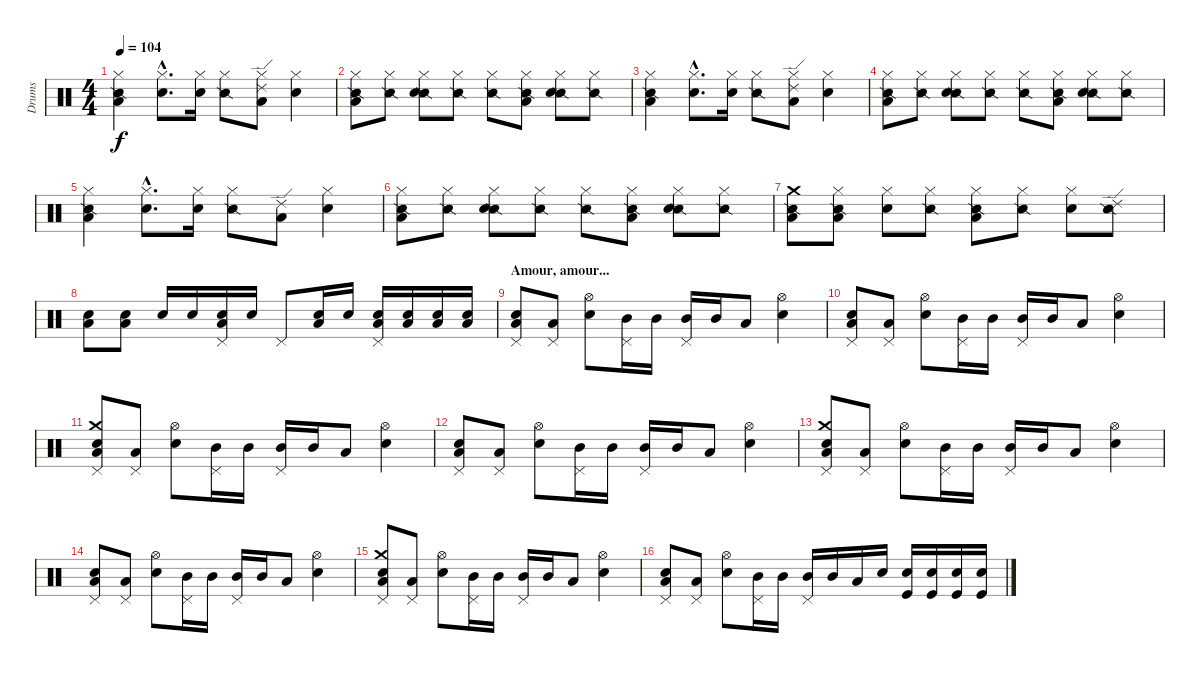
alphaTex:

\track ("Drums" "Drums") {instrument percussion}
\staff {score}
\articulation defaults
\ts (4 4)
\tempo 104
\clef neutral
\ks c
("Snare (side stick) 2" "Hi-Hat (closed)" "Low Floor Tom (hit)").4{dy f} ("Snare (hit) 2"{hac} "Hi-Hat (closed)"{hac}).8{d} ("Snare (hit) 2" "Hi-Hat (closed)").16 ("Snare (side stick) 2" "Hi-Hat (closed)").8 ("Ride (edge) 2" "Hi-Hat (closed)" "Low Floor Tom (hit)").8 ("Snare (hit) 2" "Hi-Hat (closed)").4 |
("Snare (side stick) 2" "Hi-Hat (closed)" "Low Floor Tom (hit)").8 ("Snare (side stick) 2" "Hi-Hat (closed)").8 ("Snare (side stick) 2" "Snare (hit) 2" "Hi-Hat (closed)").8 ("Snare (side stick) 2" "Hi-Hat (closed)").8 ("Snare (side stick) 2" "Hi-Hat (closed)").8 ("Snare (side stick) 2" "Hi-Hat (closed)" "Low Floor Tom (hit)").8 ("Snare (side stick) 2" "Snare (hit) 2" "Hi-Hat (closed)").8 ("Snare (side stick) 2" "Hi-Hat (closed)").8 |
("Snare (side stick) 2" "Hi-Hat (closed)" "Low Floor Tom (hit)").4 ("Snare (hit) 2"{hac} "Hi-Hat (closed)"{hac}).8{d} ("Snare (hit) 2" "Hi-Hat (closed)").16 ("Snare (side stick) 2" "Hi-Hat (closed)").8 ("Ride (edge) 2" "Hi-Hat (closed)" "Low Floor Tom (hit)").8 ("Snare (hit) 2" "Hi-Hat (closed)").4 |
("Snare (side stick) 2" "Hi-Hat (closed)" "Low Floor Tom (hit)").8 ("Snare (side stick) 2" "Hi-Hat (closed)").8 ("Snare (side stick) 2" "Snare (hit) 2" "Hi-Hat (closed)").8 ("Snare (side stick) 2" "Hi-Hat (closed)").8 ("Snare (side stick) 2" "Hi-Hat (closed)").8 ("Snare (side stick) 2" "Hi-Hat (closed)" "Low Floor Tom (hit)").8 ("Snare (side stick) 2" "Snare (hit) 2" "Hi-Hat (closed)").8 ("Snare (side stick) 2" "Hi-Hat (closed)").8 |
("Snare (side stick) 2" "Hi-Hat (closed)" "Low Floor Tom (hit)").4 ("Snare (hit) 2"{hac} "Hi-Hat (closed)"{hac}).8{d} ("Snare (hit) 2" "Hi-Hat (closed)").16 ("Snare (side stick) 2" "Hi-Hat (closed)").8 ("Ride (edge) 2" "Low Floor Tom (hit)").8 ("Snare (hit) 2" "Hi-Hat (closed)").4 |
("Snare (side stick) 2" "Hi-Hat (closed)" "Low Floor Tom (hit)").8 ("Snare (side stick) 2" "Hi-Hat (closed)").8 ("Snare (side stick) 2" "Snare (hit) 2" "Hi-Hat (closed)").8 ("Snare (side stick) 2" "Hi-Hat (closed)").8 ("Snare (side stick) 2" "Hi-Hat (closed)").8 ("Snare (side stick) 2" "Hi-Hat (closed)" "Low Floor Tom (hit)").8 ("Snare (side stick) 2" "Snare (hit) 2" "Hi-Hat (closed)").8 ("Snare (side stick) 2" "Hi-Hat (closed)").8 |
("Snare (side stick) 2" "Crash medium (hit)" "Low Floor Tom (hit)").8 ("Snare (side stick) 2" "Hi-Hat (closed)" "Low Floor Tom (hit)").8 ("Snare (hit) 2" "Hi-Hat (closed)").8 ("Snare (side stick) 2" "Hi-Hat (closed)").8 ("Snare (side stick) 2" "Hi-Hat (closed)" "Low Floor Tom (hit)").8 ("Snare (side stick) 2" "Hi-Hat (closed)").8 ("Snare (hit) 2" "Hi-Hat (closed)").8 ("Snare (side stick) 2" "Ride (edge) 2").8 |
("Electric Snare (hit)" "Low Floor Tom (hit)").8 ("Electric Snare (hit)" "Low Floor Tom (hit)").8 "Electric Snare (hit)".16 "Electric Snare (hit)".16 ("Electric Snare (hit)" "Pedal Hi-Hat (hit)" "Low Floor Tom (hit)").16 "Electric Snare (hit)".16 "Pedal Hi-Hat (hit)".8 ("Electric Snare (hit)" "Low Floor Tom (hit)").16 "Electric Snare (hit)".16 ("Electric Snare (hit)" "Pedal Hi-Hat (hit)" "Low Floor Tom (hit)").16 ("Electric Snare (hit)" "Low Floor Tom (hit)").16 ("Electric Snare (hit)" "Low Floor Tom (hit)").16 ("Electric Snare (hit)" "Low Floor Tom (hit)").16 |
\section ("" "Amour, amour...")
("Snare (hit) 2" "Pedal Hi-Hat (hit)" "Low Floor Tom (hit)").8 ("Pedal Hi-Hat (hit)" "Low Floor Tom (hit)").8 ("Snare (hit) 2" "Hi-Hat (open)").8 ("Mid Tom (hit)" "Pedal Hi-Hat (hit)").16 "Mid Tom (hit)".16 ("Mid Tom (hit)" "Pedal Hi-Hat (hit)").16 "Mid Tom (hit)".16 "Low Floor Tom (hit)".8 ("Snare (hit) 2" "Hi-Hat (open)").4 |
("Snare (hit) 2" "Pedal Hi-Hat (hit)" "Low Floor Tom (hit)").8 ("Pedal Hi-Hat (hit)" "Low Floor Tom (hit)").8 ("Snare (hit) 2" "Hi-Hat (open)").8 ("Mid Tom (hit)" "Pedal Hi-Hat (hit)").16 "Mid Tom (hit)".16 ("Mid Tom (hit)" "Pedal Hi-Hat (hit)").16 "Mid Tom (hit)".16 "Low Floor Tom (hit)".8 ("Snare (hit) 2" "Hi-Hat (open)").4 |
("Snare (hit) 2" "Crash medium (hit)" "Pedal Hi-Hat (hit)" "Low Floor Tom (hit)").8 ("Pedal Hi-Hat (hit)" "Low Floor Tom (hit)").8 ("Snare (hit) 2" "Hi-Hat (open)").8 ("Mid Tom (hit)" "Pedal Hi-Hat (hit)").16 "Mid Tom (hit)".16 ("Mid Tom (hit)" "Pedal Hi-Hat (hit)").16 "Mid Tom (hit)".16 "Low Floor Tom (hit)".8 ("Snare (hit) 2" "Hi-Hat (open)").4 |
("Snare (hit) 2" "Pedal Hi-Hat (hit)" "Low Floor Tom (hit)").8 ("Pedal Hi-Hat (hit)" "Low Floor Tom (hit)").8 ("Snare (hit) 2" "Hi-Hat (open)").8 ("Mid Tom (hit)" "Pedal Hi-Hat (hit)").16 "Mid Tom (hit)".16 ("Mid Tom (hit)" "Pedal Hi-Hat (hit)").16 "Mid Tom (hit)".16 "Low Floor Tom (hit)".8 ("Snare (hit) 2" "Hi-Hat (open)").4 |
("Snare (hit) 2" "Crash medium (hit)" "Pedal Hi-Hat (hit)" "Low Floor Tom (hit)").8 ("Pedal Hi-Hat (hit)" "Low Floor Tom (hit)").8 ("Snare (hit) 2" "Hi-Hat (open)").8 ("Mid Tom (hit)" "Pedal Hi-Hat (hit)").16 "Mid Tom (hit)".16 ("Mid Tom (hit)" "Pedal Hi-Hat (hit)").16 "Mid Tom (hit)".16 "Low Floor Tom (hit)".8 ("Snare (hit) 2" "Hi-Hat (open)").4 |
("Snare (hit) 2" "Pedal Hi-Hat (hit)" "Low Floor Tom (hit)").8 ("Pedal Hi-Hat (hit)" "Low Floor Tom (hit)").8 ("Snare (hit) 2" "Hi-Hat (open)").8 ("Mid Tom (hit)" "Pedal Hi-Hat (hit)").16 "Mid Tom (hit)".16 ("Mid Tom (hit)" "Pedal Hi-Hat (hit)").16 "Mid Tom (hit)".16 "Low Floor Tom (hit)".8 ("Snare (hit) 2" "Hi-Hat (open)").4 |
("Snare (hit) 2" "Crash medium (hit)" "Pedal Hi-Hat (hit)" "Low Floor Tom (hit)").8 ("Pedal Hi-Hat (hit)" "Low Floor Tom (hit)").8 ("Snare (hit) 2" "Hi-Hat (open)").8 ("Mid Tom (hit)" "Pedal Hi-Hat (hit)").16 "Mid Tom (hit)".16 ("Mid Tom (hit)" "Pedal Hi-Hat (hit)").16 "Mid Tom (hit)".16 "Low Floor Tom (hit)".8 ("Snare (hit) 2" "Hi-Hat (open)").4 |
("Snare (hit) 2" "Pedal Hi-Hat (hit)" "Low Floor Tom (hit)").8 ("Pedal Hi-Hat (hit)" "Low Floor Tom (hit)").8 ("Snare (hit) 2" "Hi-Hat (open)").8 ("Mid Tom (hit)" "Pedal Hi-Hat (hit)").16 "Mid Tom (hit)".16 ("Mid Tom (hit)" "Pedal Hi-Hat (hit)").16 "Mid Tom (hit)".16 "Low Floor Tom (hit)".16 "Snare (hit) 2".16 ("Snare (hit) 2" "Kick (hit)").16 ("Snare (hit) 2" "Kick (hit)").16 ("Snare (hit) 2" "Kick (hit)").16 ("Snare (hit) 2" "Kick (hit)").16
